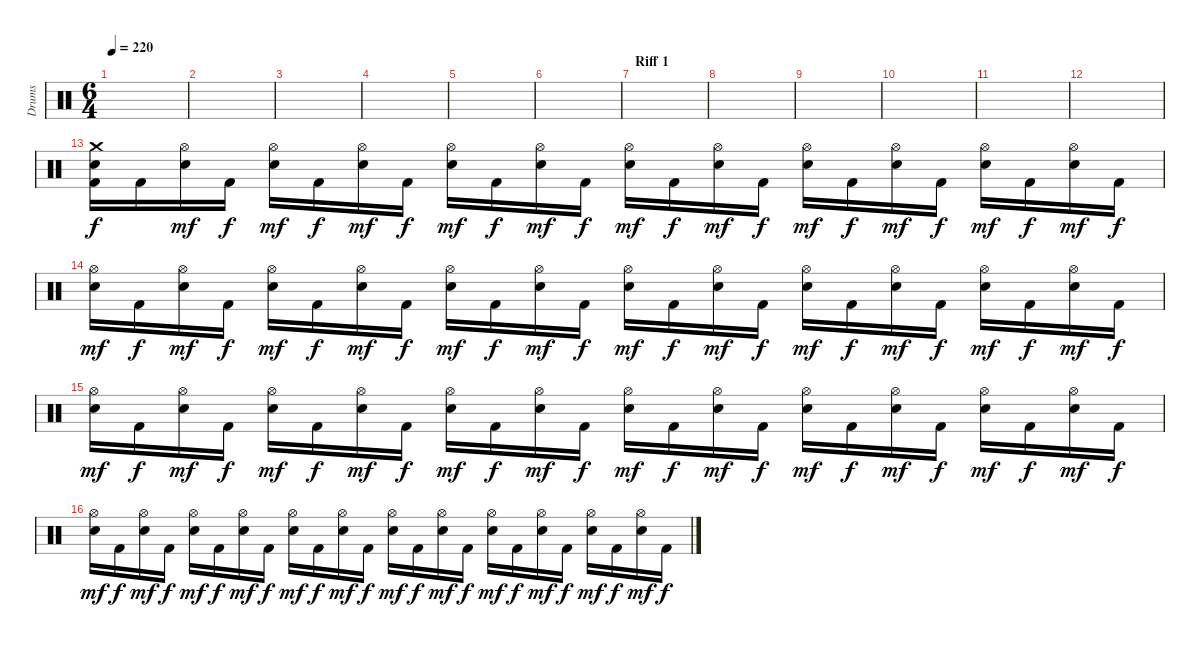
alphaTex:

\track ("Drums" "Drums") {instrument percussion}
\staff {score}
\articulation defaults
\ts (6 4)
\tempo 220
\clef neutral
\ks c
|
|
|
|
|
|
\section ("" "Riff 1")
|
|
|
|
|
|
("Crash medium (hit)" "Electric Snare (hit)" "Kick (hit) 2").16{dy f} "Kick (hit) 2".16 ("Hi-Hat (open)" "Electric Snare (hit)").16{dy mf} "Kick (hit) 2".16{dy f} ("Hi-Hat (open)" "Electric Snare (hit)").16{dy mf} "Kick (hit) 2".16{dy f} ("Hi-Hat (open)" "Electric Snare (hit)").16{dy mf} "Kick (hit) 2".16{dy f} ("Hi-Hat (open)" "Electric Snare (hit)").16{dy mf} "Kick (hit) 2".16{dy f} ("Hi-Hat (open)" "Electric Snare (hit)").16{dy mf} "Kick (hit) 2".16{dy f} ("Hi-Hat (open)" "Electric Snare (hit)").16{dy mf} "Kick (hit) 2".16{dy f} ("Hi-Hat (open)" "Electric Snare (hit)").16{dy mf} "Kick (hit) 2".16{dy f} ("Hi-Hat (open)" "Electric Snare (hit)").16{dy mf} "Kick (hit) 2".16{dy f} ("Hi-Hat (open)" "Electric Snare (hit)").16{dy mf} "Kick (hit) 2".16{dy f} ("Hi-Hat (open)" "Electric Snare (hit)").16{dy mf} "Kick (hit) 2".16{dy f} ("Hi-Hat (open)" "Electric Snare (hit)").16{dy mf} "Kick (hit) 2".16{dy f} |
("Hi-Hat (open)" "Electric Snare (hit)").16{dy mf} "Kick (hit) 2".16{dy f} ("Hi-Hat (open)" "Electric Snare (hit)").16{dy mf} "Kick (hit) 2".16{dy f} ("Hi-Hat (open)" "Electric Snare (hit)").16{dy mf} "Kick (hit) 2".16{dy f} ("Hi-Hat (open)" "Electric Snare (hit)").16{dy mf} "Kick (hit) 2".16{dy f} ("Hi-Hat (open)" "Electric Snare (hit)").16{dy mf} "Kick (hit) 2".16{dy f} ("Hi-Hat (open)" "Electric Snare (hit)").16{dy mf} "Kick (hit) 2".16{dy f} ("Hi-Hat (open)" "Electric Snare (hit)").16{dy mf} "Kick (hit) 2".16{dy f} ("Hi-Hat (open)" "Electric Snare (hit)").16{dy mf} "Kick (hit) 2".16{dy f} ("Hi-Hat (open)" "Electric Snare (hit)").16{dy mf} "Kick (hit) 2".16{dy f} ("Hi-Hat (open)" "Electric Snare (hit)").16{dy mf} "Kick (hit) 2".16{dy f} ("Hi-Hat (open)" "Electric Snare (hit)").16{dy mf} "Kick (hit) 2".16{dy f} ("Hi-Hat (open)" "Electric Snare (hit)").16{dy mf} "Kick (hit) 2".16{dy f} |
("Hi-Hat (open)" "Electric Snare (hit)").16{dy mf} "Kick (hit) 2".16{dy f} ("Hi-Hat (open)" "Electric Snare (hit)").16{dy mf} "Kick (hit) 2".16{dy f} ("Hi-Hat (open)" "Electric Snare (hit)").16{dy mf} "Kick (hit) 2".16{dy f} ("Hi-Hat (open)" "Electric Snare (hit)").16{dy mf} "Kick (hit) 2".16{dy f} ("Hi-Hat (open)" "Electric Snare (hit)").16{dy mf} "Kick (hit) 2".16{dy f} ("Hi-Hat (open)" "Electric Snare (hit)").16{dy mf} "Kick (hit) 2".16{dy f} ("Hi-Hat (open)" "Electric Snare (hit)").16{dy mf} "Kick (hit) 2".16{dy f} ("Hi-Hat (open)" "Electric Snare (hit)").16{dy mf} "Kick (hit) 2".16{dy f} ("Hi-Hat (open)" "Electric Snare (hit)").16{dy mf} "Kick (hit) 2".16{dy f} ("Hi-Hat (open)" "Electric Snare (hit)").16{dy mf} "Kick (hit) 2".16{dy f} ("Hi-Hat (open)" "Electric Snare (hit)").16{dy mf} "Kick (hit) 2".16{dy f} ("Hi-Hat (open)" "Electric Snare (hit)").16{dy mf} "Kick (hit) 2".16{dy f} |
("Hi-Hat (open)" "Electric Snare (hit)").16{dy mf} "Kick (hit) 2".16{dy f} ("Hi-Hat (open)" "Electric Snare (hit)").16{dy mf} "Kick (hit) 2".16{dy f} ("Hi-Hat (open)" "Electric Snare (hit)").16{dy mf} "Kick (hit) 2".16{dy f} ("Hi-Hat (open)" "Electric Snare (hit)").16{dy mf} "Kick (hit) 2".16{dy f} ("Hi-Hat (open)" "Electric Snare (hit)").16{dy mf} "Kick (hit) 2".16{dy f} ("Hi-Hat (open)" "Electric Snare (hit)").16{dy mf} "Kick (hit) 2".16{dy f} ("Hi-Hat (open)" "Electric Snare (hit)").16{dy mf} "Kick (hit) 2".16{dy f} ("Hi-Hat (open)" "Electric Snare (hit)").16{dy mf} "Kick (hit) 2".16{dy f} ("Hi-Hat (open)" "Electric Snare (hit)").16{dy mf} "Kick (hit) 2".16{dy f} ("Hi-Hat (open)" "Electric Snare (hit)").16{dy mf} "Kick (hit) 2".16{dy f} ("Hi-Hat (open)" "Electric Snare (hit)").16{dy mf} "Kick (hit) 2".16{dy f} ("Hi-Hat (open)" "Electric Snare (hit)").16{dy mf} "Kick (hit) 2".16{dy f}
